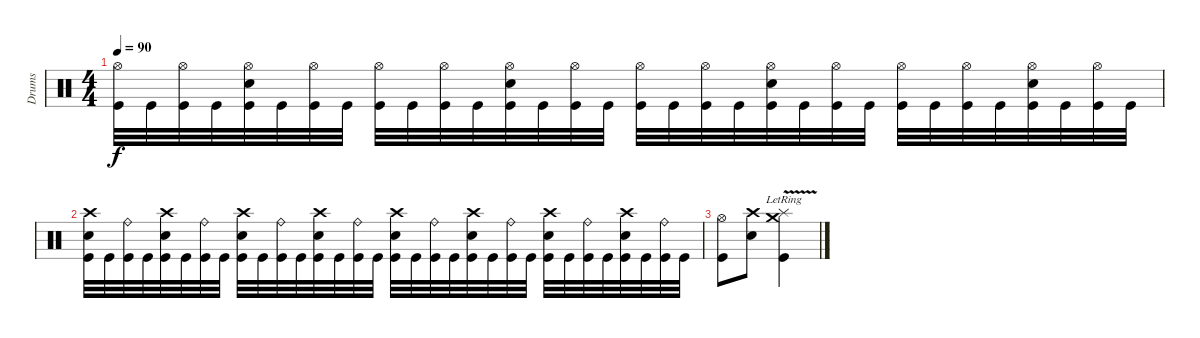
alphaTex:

\track ("Drums" "Drums") {instrument percussion}
\staff {score}
\articulation defaults
\ts (4 4)
\tempo 90
\clef neutral
\ks c
("Hi-Hat (open)" "Kick (hit)").32{dy f} "Kick (hit)".32 ("Hi-Hat (open)" "Kick (hit)").32 "Kick (hit)".32 ("Hi-Hat (open)" "Snare (hit) 2" "Kick (hit)").32 "Kick (hit)".32 ("Hi-Hat (open)" "Kick (hit)").32 "Kick (hit)".32 ("Hi-Hat (open)" "Kick (hit)").32 "Kick (hit)".32 ("Hi-Hat (open)" "Kick (hit)").32 "Kick (hit)".32 ("Hi-Hat (open)" "Snare (hit) 2" "Kick (hit)").32 "Kick (hit)".32 ("Hi-Hat (open)" "Kick (hit)").32 "Kick (hit)".32 ("Hi-Hat (open)" "Kick (hit)").32 "Kick (hit)".32 ("Hi-Hat (open)" "Kick (hit)").32 "Kick (hit)".32 ("Hi-Hat (open)" "Snare (hit) 2" "Kick (hit)").32 "Kick (hit)".32 ("Hi-Hat (open)" "Kick (hit)").32 "Kick (hit)".32 ("Hi-Hat (open)" "Kick (hit)").32 "Kick (hit)".32 ("Hi-Hat (open)" "Kick (hit)").32 "Kick (hit)".32 ("Hi-Hat (open)" "Snare (hit) 2" "Kick (hit)").32 "Kick (hit)".32 ("Hi-Hat (open)" "Kick (hit)").32 "Kick (hit)".32 |
("Crash high (hit)" "Snare (hit) 2" "Kick (hit)").32 "Kick (hit)".32 ("Ride (bell)" "Kick (hit)").32 "Kick (hit)".32 ("Crash high (hit)" "Snare (hit) 2" "Kick (hit)").32 "Kick (hit)".32 ("Ride (bell)" "Kick (hit)").32 "Kick (hit)".32 ("Crash high (hit)" "Snare (hit) 2" "Kick (hit)").32 "Kick (hit)".32 ("Ride (bell)" "Kick (hit)").32 "Kick (hit)".32 ("Crash high (hit)" "Snare (hit) 2" "Kick (hit)").32 "Kick (hit)".32 ("Ride (bell)" "Kick (hit)").32 "Kick (hit)".32 ("Crash high (hit)" "Snare (hit) 2" "Kick (hit)").32 "Kick (hit)".32 ("Ride (bell)" "Kick (hit)").32 "Kick (hit)".32 ("Crash high (hit)" "Snare (hit) 2" "Kick (hit)").32 "Kick (hit)".32 ("Ride (bell)" "Kick (hit)").32 "Kick (hit)".32 ("Crash high (hit)" "Snare (hit) 2" "Kick (hit)").32 "Kick (hit)".32 ("Ride (bell)" "Kick (hit)").32 "Kick (hit)".32 ("Crash high (hit)" "Snare (hit) 2" "Kick (hit)").32 "Kick (hit)".32 ("Ride (bell)" "Kick (hit)").32 "Kick (hit)".32 |
("Hi-Hat (open)" "Kick (hit)").8 ("Crash high (hit)" "Snare (hit) 2").8 ("Splash (hit)"{lr} "Crash medium (hit)"{lr} "Kick (hit)"{v lr}).4
